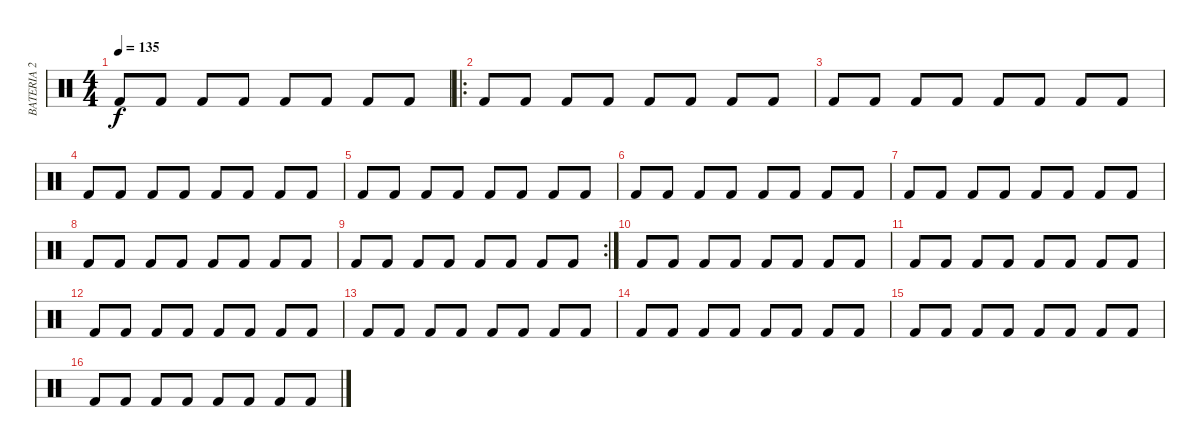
\track ("BATERIA 2" "BATERIA 2") {instrument percussion}
\staff {score}
\articulation defaults
\ts (4 4)
\tempo 135
\clef neutral
\ks c "Kick (hit) 2".8{dy f} "Kick (hit) 2".8 "Kick (hit) 2".8 "Kick (hit) 2".8 "Kick (hit) 2".8 "Kick (hit) 2".8 "Kick (hit) 2".8 "Kick (hit) 2".8
|
\ro "Kick (hit) 2".8 "Kick (hit) 2".8 "Kick (hit) 2".8 "Kick (hit) 2".8 "Kick (hit) 2".8 "Kick (hit) 2".8 "Kick (hit) 2".8 "Kick (hit) 2".8
|
"Kick (hit) 2".8 "Kick (hit) 2".8 "Kick (hit) 2".8 "Kick (hit) 2".8 "Kick (hit) 2".8 "Kick (hit) 2".8 "Kick (hit) 2".8 "Kick (hit) 2".8 |
"Kick (hit) 2".8 "Kick (hit) 2".8 "Kick (hit) 2".8 "Kick (hit) 2".8 "Kick (hit) 2".8 "Kick (hit) 2".8 "Kick (hit) 2".8 "Kick (hit) 2".8 |
"Kick (hit) 2".8 "Kick (hit) 2".8 "Kick (hit) 2".8 "Kick (hit) 2".8 "Kick (hit) 2".8 "Kick (hit) 2".8 "Kick (hit) 2".8 "Kick (hit) 2".8 |
"Kick (hit) 2".8 "Kick (hit) 2".8 "Kick (hit) 2".8 "Kick (hit) 2".8 "Kick (hit) 2".8 "Kick (hit) 2".8 "Kick (hit) 2".8 "Kick (hit) 2".8 |
"Kick (hit) 2".8 "Kick (hit) 2".8 "Kick (hit) 2".8 "Kick (hit) 2".8 "Kick (hit) 2".8 "Kick (hit) 2".8 "Kick (hit) 2".8 "Kick (hit) 2".8 |
"Kick (hit) 2".8 "Kick (hit) 2".8 "Kick (hit) 2".8 "Kick (hit) 2".8 "Kick (hit) 2".8 "Kick (hit) 2".8 "Kick (hit) 2".8 "Kick (hit) 2".8 |
\rc 2 "Kick (hit) 2".8 "Kick (hit) 2".8 "Kick (hit) 2".8 "Kick (hit) 2".8 "Kick (hit) 2".8 "Kick (hit) 2".8 "Kick (hit) 2".8 "Kick (hit) 2".8
|
"Kick (hit) 2".8 "Kick (hit) 2".8 "Kick (hit) 2".8 "Kick (hit) 2".8 "Kick (hit) 2".8 "Kick (hit) 2".8 "Kick (hit) 2".8 "Kick (hit) 2".8 |
"Kick (hit) 2".8 "Kick (hit) 2".8 "Kick (hit) 2".8 "Kick (hit) 2".8 "Kick (hit) 2".8 "Kick (hit) 2".8 "Kick (hit) 2".8 "Kick (hit) 2".8 |
"Kick (hit) 2".8 "Kick (hit) 2".8 "Kick (hit) 2".8 "Kick (hit) 2".8 "Kick (hit) 2".8 "Kick (hit) 2".8 "Kick (hit) 2".8 "Kick (hit) 2".8 |
"Kick (hit) 2".8 "Kick (hit) 2".8 "Kick (hit) 2".8 "Kick (hit) 2".8 "Kick (hit) 2".8 "Kick (hit) 2".8 "Kick (hit) 2".8 "Kick (hit) 2".8 |
"Kick (hit) 2".8 "Kick (hit) 2".8 "Kick (hit) 2".8 "Kick (hit) 2".8 "Kick (hit) 2".8 "Kick (hit) 2".8 "Kick (hit) 2".8 "Kick (hit) 2".8 |
"Kick (hit) 2".8 "Kick (hit) 2".8 "Kick (hit) 2".8 "Kick (hit) 2".8 "Kick (hit) 2".8 "Kick (hit) 2".8 "Kick (hit) 2".8 "Kick (hit) 2".8 |
"Kick (hit) 2".8 "Kick (hit) 2".8 "Kick (hit) 2".8 "Kick (hit) 2".8 "Kick (hit) 2".8 "Kick (hit) 2".8 "Kick (hit) 2".8 "Kick (hit) 2".8
